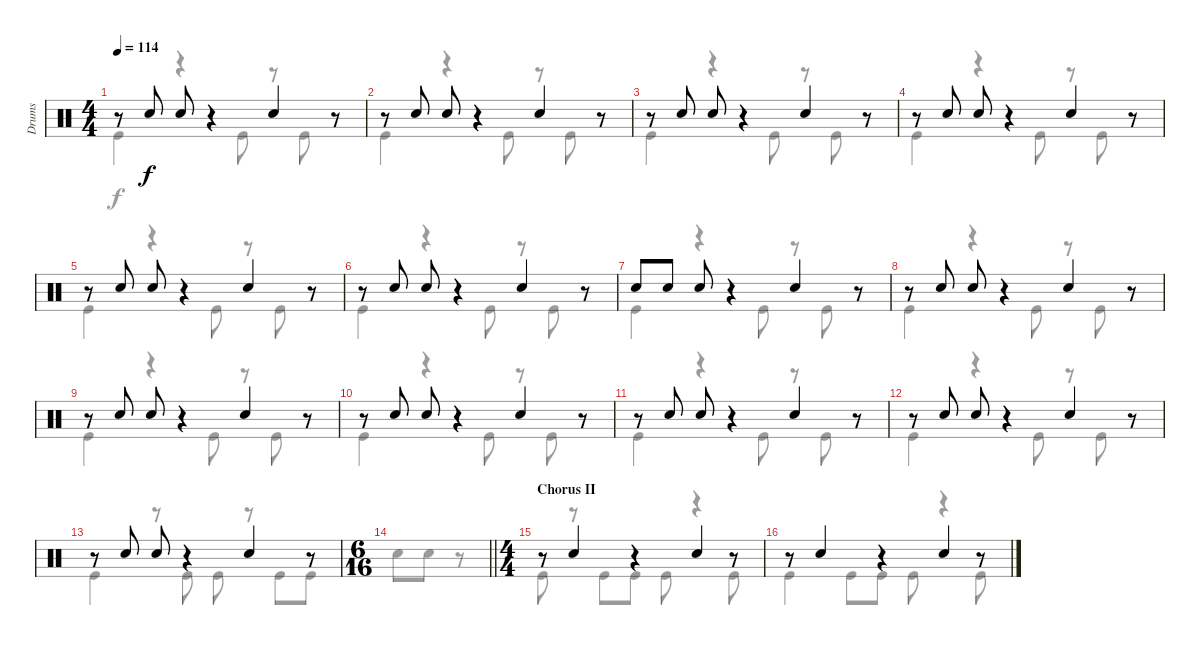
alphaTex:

\track ("Drums" "Drums") {instrument percussion}
\staff {score}
\articulation defaults
\voice
\ts (4 4)
\tempo 114
\clef neutral
\ks c
r.8{dy f} "Snare (hit) 2".8 "Snare (hit) 2".8 r.4 "Snare (hit) 2".4 r.8 |
r.8 "Snare (hit) 2".8 "Snare (hit) 2".8 r.4 "Snare (hit) 2".4 r.8 |
r.8 "Snare (hit) 2".8 "Snare (hit) 2".8 r.4 "Snare (hit) 2".4 r.8 |
r.8 "Snare (hit) 2".8 "Snare (hit) 2".8 r.4 "Snare (hit) 2".4 r.8 |
r.8 "Snare (hit) 2".8 "Snare (hit) 2".8 r.4 "Snare (hit) 2".4 r.8 |
r.8 "Snare (hit) 2".8 "Snare (hit) 2".8 r.4 "Snare (hit) 2".4 r.8 |
"Snare (hit) 2".8 "Snare (hit) 2".8 "Snare (hit) 2".8 r.4 "Snare (hit) 2".4 r.8 |
r.8 "Snare (hit) 2".8 "Snare (hit) 2".8 r.4 "Snare (hit) 2".4 r.8 |
r.8 "Snare (hit) 2".8 "Snare (hit) 2".8 r.4 "Snare (hit) 2".4 r.8 |
r.8 "Snare (hit) 2".8 "Snare (hit) 2".8 r.4 "Snare (hit) 2".4 r.8 |
r.8 "Snare (hit) 2".8 "Snare (hit) 2".8 r.4 "Snare (hit) 2".4 r.8 |
r.8 "Snare (hit) 2".8 "Snare (hit) 2".8 r.4 "Snare (hit) 2".4 r.8 |
r.8 "Snare (hit) 2".8 "Snare (hit) 2".8 r.4 "Snare (hit) 2".4 r.8 |
\ts (6 16)
\barLineRight lightlight
|
\ts (4 4)
\section ("" "Chorus II")
r.8 "Snare (hit) 2".4 r.4 "Snare (hit) 2".4 r.8 |
r.8 "Snare (hit) 2".4 r.4 "Snare (hit) 2".4 r.8
\voice
\clef neutral
\ottava regular
\simile none
\ks c "Kick (hit)".4{dy f}
r.4 "Kick (hit)".8 r.8 "Kick (hit)".8 r.8 |
"Kick (hit)".4 r.4 "Kick (hit)".8 r.8 "Kick (hit)".8 r.8 |
"Kick (hit)".4 r.4 "Kick (hit)".8 r.8 "Kick (hit)".8 r.8 |
"Kick (hit)".4 r.4 "Kick (hit)".8 r.8 "Kick (hit)".8 r.8 |
"Kick (hit)".4 r.4 "Kick (hit)".8 r.8 "Kick (hit)".8 r.8 |
"Kick (hit)".4 r.4 "Kick (hit)".8 r.8 "Kick (hit)".8 r.8 |
"Kick (hit)".4 r.4 "Kick (hit)".8 r.8 "Kick (hit)".8 r.8 |
"Kick (hit)".4 r.4 "Kick (hit)".8 r.8 "Kick (hit)".8 r.8 |
"Kick (hit)".4 r.4 "Kick (hit)".8 r.8 "Kick (hit)".8 r.8 |
"Kick (hit)".4 r.4 "Kick (hit)".8 r.8 "Kick (hit)".8 r.8 |
"Kick (hit)".4 r.4 "Kick (hit)".8 r.8 "Kick (hit)".8 r.8 |
"Kick (hit)".4 r.4 "Kick (hit)".8 r.8 "Kick (hit)".8 r.8 |
"Kick (hit)".4 r.8 "Kick (hit)".8 "Kick (hit)".8 r.8 "Kick (hit)".8 "Kick (hit)".8 |
\barLineRight lightlight "Snare (hit) 2".8 "Snare (hit) 2".8
r.8 |
"Kick (hit)".8 r.8 "Kick (hit)".8 "Kick (hit)".8 "Kick (hit)".8 r.4 "Kick (hit)".8 |
"Kick (hit)".4 "Kick (hit)".8 "Kick (hit)".8 "Kick (hit)".8 r.4 "Kick (hit)".8
